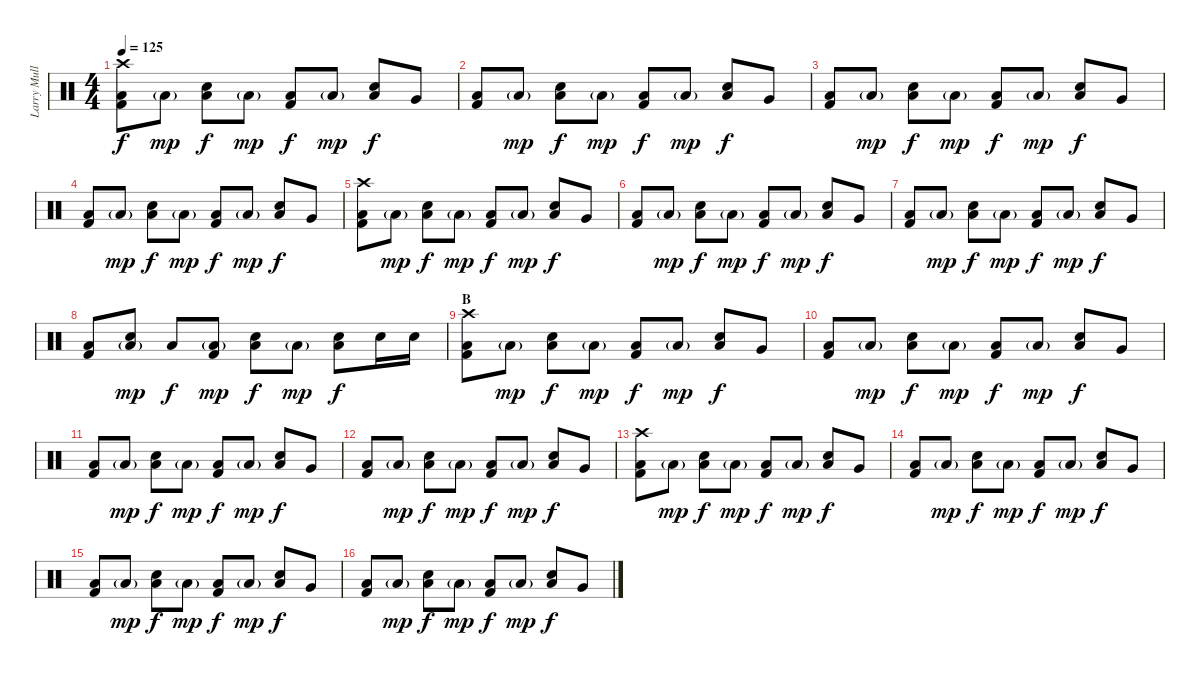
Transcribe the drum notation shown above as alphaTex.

\track ("Larry Mullen Jr" "Larry Mull") {instrument percussion}
\staff {score}
\articulation defaults
\ts (4 4)
\tempo 125
\clef neutral
\ks c
("Crash high (hit)" "Kick (hit) 2" "Low Floor Tom (hit)").8{dy f} "Low Floor Tom (hit)"{g}.8{dy mp} ("Snare (hit) 2" "Low Floor Tom (hit)").8{dy f} "Low Floor Tom (hit)"{g}.8{dy mp} ("Kick (hit) 2" "Low Floor Tom (hit)").8{dy f} "Low Floor Tom (hit)"{g}.8{dy mp} ("Snare (hit) 2" "Low Floor Tom (hit)").8{dy f} "Very Low Tom (hit)".8 |
("Kick (hit) 2" "Low Floor Tom (hit)").8 "Low Floor Tom (hit)"{g}.8{dy mp} ("Snare (hit) 2" "Low Floor Tom (hit)").8{dy f} "Low Floor Tom (hit)"{g}.8{dy mp} ("Kick (hit) 2" "Low Floor Tom (hit)").8{dy f} "Low Floor Tom (hit)"{g}.8{dy mp} ("Snare (hit) 2" "Low Floor Tom (hit)").8{dy f} "Very Low Tom (hit)".8 |
("Kick (hit) 2" "Low Floor Tom (hit)").8 "Low Floor Tom (hit)"{g}.8{dy mp} ("Snare (hit) 2" "Low Floor Tom (hit)").8{dy f} "Low Floor Tom (hit)"{g}.8{dy mp} ("Kick (hit) 2" "Low Floor Tom (hit)").8{dy f} "Low Floor Tom (hit)"{g}.8{dy mp} ("Snare (hit) 2" "Low Floor Tom (hit)").8{dy f} "Very Low Tom (hit)".8 |
("Kick (hit) 2" "Low Floor Tom (hit)").8 "Low Floor Tom (hit)"{g}.8{dy mp} ("Snare (hit) 2" "Low Floor Tom (hit)").8{dy f} "Low Floor Tom (hit)"{g}.8{dy mp} ("Kick (hit) 2" "Low Floor Tom (hit)").8{dy f} "Low Floor Tom (hit)"{g}.8{dy mp} ("Snare (hit) 2" "Low Floor Tom (hit)").8{dy f} "Very Low Tom (hit)".8 |
("Crash high (hit)" "Kick (hit) 2" "Low Floor Tom (hit)").8 "Low Floor Tom (hit)"{g}.8{dy mp} ("Snare (hit) 2" "Low Floor Tom (hit)").8{dy f} "Low Floor Tom (hit)"{g}.8{dy mp} ("Kick (hit) 2" "Low Floor Tom (hit)").8{dy f} "Low Floor Tom (hit)"{g}.8{dy mp} ("Snare (hit) 2" "Low Floor Tom (hit)").8{dy f} "Very Low Tom (hit)".8 |
("Kick (hit) 2" "Low Floor Tom (hit)").8 "Low Floor Tom (hit)"{g}.8{dy mp} ("Snare (hit) 2" "Low Floor Tom (hit)").8{dy f} "Low Floor Tom (hit)"{g}.8{dy mp} ("Kick (hit) 2" "Low Floor Tom (hit)").8{dy f} "Low Floor Tom (hit)"{g}.8{dy mp} ("Snare (hit) 2" "Low Floor Tom (hit)").8{dy f} "Very Low Tom (hit)".8 |
("Kick (hit) 2" "Low Floor Tom (hit)").8 "Low Floor Tom (hit)"{g}.8{dy mp} ("Snare (hit) 2" "Low Floor Tom (hit)").8{dy f} "Low Floor Tom (hit)"{g}.8{dy mp} ("Kick (hit) 2" "Low Floor Tom (hit)").8{dy f} "Low Floor Tom (hit)"{g}.8{dy mp} ("Snare (hit) 2" "Low Floor Tom (hit)").8{dy f} "Very Low Tom (hit)".8 |
("Kick (hit) 2" "Low Floor Tom (hit)").8 ("Snare (hit) 2" "Low Floor Tom (hit)"{g}).8{dy mp} "Low Floor Tom (hit)".8{dy f} ("Kick (hit) 2" "Low Floor Tom (hit)"{g}).8{dy mp} ("Snare (hit) 2" "Low Floor Tom (hit)").8{dy f} "Low Floor Tom (hit)"{g}.8{dy mp} ("Snare (hit) 2" "Low Floor Tom (hit)").8{dy f} "Snare (hit) 2".16 "Snare (hit) 2".16 |
\section ("" "B")
("Crash high (hit)" "Kick (hit) 2" "Low Floor Tom (hit)").8 "Low Floor Tom (hit)"{g}.8{dy mp} ("Snare (hit) 2" "Low Floor Tom (hit)").8{dy f} "Low Floor Tom (hit)"{g}.8{dy mp} ("Kick (hit) 2" "Low Floor Tom (hit)").8{dy f} "Low Floor Tom (hit)"{g}.8{dy mp} ("Snare (hit) 2" "Low Floor Tom (hit)").8{dy f} "Very Low Tom (hit)".8 |
("Kick (hit) 2" "Low Floor Tom (hit)").8 "Low Floor Tom (hit)"{g}.8{dy mp} ("Snare (hit) 2" "Low Floor Tom (hit)").8{dy f} "Low Floor Tom (hit)"{g}.8{dy mp} ("Kick (hit) 2" "Low Floor Tom (hit)").8{dy f} "Low Floor Tom (hit)"{g}.8{dy mp} ("Snare (hit) 2" "Low Floor Tom (hit)").8{dy f} "Very Low Tom (hit)".8 |
("Kick (hit) 2" "Low Floor Tom (hit)").8 "Low Floor Tom (hit)"{g}.8{dy mp} ("Snare (hit) 2" "Low Floor Tom (hit)").8{dy f} "Low Floor Tom (hit)"{g}.8{dy mp} ("Kick (hit) 2" "Low Floor Tom (hit)").8{dy f} "Low Floor Tom (hit)"{g}.8{dy mp} ("Snare (hit) 2" "Low Floor Tom (hit)").8{dy f} "Very Low Tom (hit)".8 |
("Kick (hit) 2" "Low Floor Tom (hit)").8 "Low Floor Tom (hit)"{g}.8{dy mp} ("Snare (hit) 2" "Low Floor Tom (hit)").8{dy f} "Low Floor Tom (hit)"{g}.8{dy mp} ("Kick (hit) 2" "Low Floor Tom (hit)").8{dy f} "Low Floor Tom (hit)"{g}.8{dy mp} ("Snare (hit) 2" "Low Floor Tom (hit)").8{dy f} "Very Low Tom (hit)".8 |
("Crash high (hit)" "Kick (hit) 2" "Low Floor Tom (hit)").8 "Low Floor Tom (hit)"{g}.8{dy mp} ("Snare (hit) 2" "Low Floor Tom (hit)").8{dy f} "Low Floor Tom (hit)"{g}.8{dy mp} ("Kick (hit) 2" "Low Floor Tom (hit)").8{dy f} "Low Floor Tom (hit)"{g}.8{dy mp} ("Snare (hit) 2" "Low Floor Tom (hit)").8{dy f} "Very Low Tom (hit)".8 |
("Kick (hit) 2" "Low Floor Tom (hit)").8 "Low Floor Tom (hit)"{g}.8{dy mp} ("Snare (hit) 2" "Low Floor Tom (hit)").8{dy f} "Low Floor Tom (hit)"{g}.8{dy mp} ("Kick (hit) 2" "Low Floor Tom (hit)").8{dy f} "Low Floor Tom (hit)"{g}.8{dy mp} ("Snare (hit) 2" "Low Floor Tom (hit)").8{dy f} "Very Low Tom (hit)".8 |
("Kick (hit) 2" "Low Floor Tom (hit)").8 "Low Floor Tom (hit)"{g}.8{dy mp} ("Snare (hit) 2" "Low Floor Tom (hit)").8{dy f} "Low Floor Tom (hit)"{g}.8{dy mp} ("Kick (hit) 2" "Low Floor Tom (hit)").8{dy f} "Low Floor Tom (hit)"{g}.8{dy mp} ("Snare (hit) 2" "Low Floor Tom (hit)").8{dy f} "Very Low Tom (hit)".8 |
("Kick (hit) 2" "Low Floor Tom (hit)").8 "Low Floor Tom (hit)"{g}.8{dy mp} ("Snare (hit) 2" "Low Floor Tom (hit)").8{dy f} "Low Floor Tom (hit)"{g}.8{dy mp} ("Kick (hit) 2" "Low Floor Tom (hit)").8{dy f} "Low Floor Tom (hit)"{g}.8{dy mp} ("Snare (hit) 2" "Low Floor Tom (hit)").8{dy f} "Very Low Tom (hit)".8
